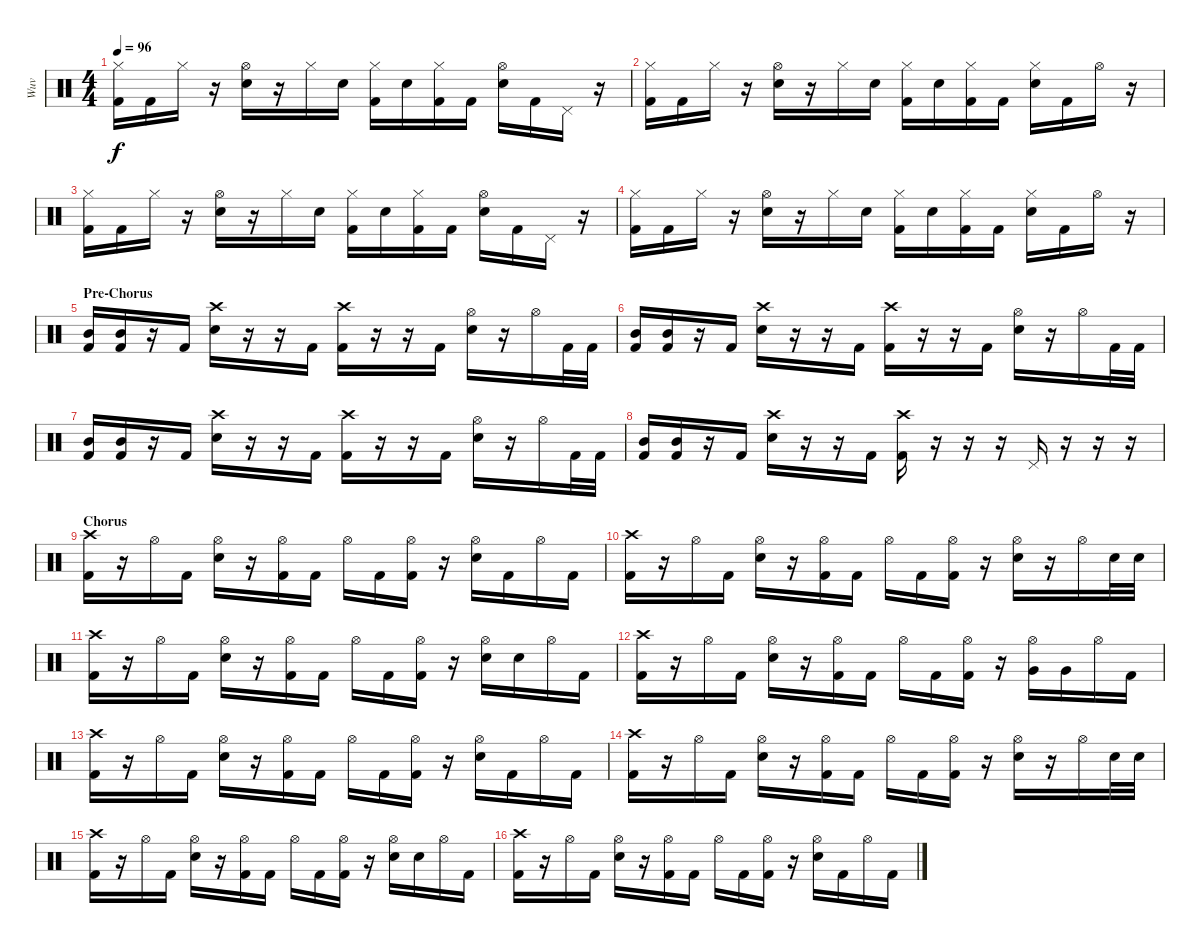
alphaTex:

\track ("Wuv" "Wuv") {instrument percussion}
\staff {score}
\articulation defaults
\ts (4 4)
\tempo 96
\clef neutral
\ks c
("Hi-Hat (closed)" "Kick (hit) 2").16{dy f} "Kick (hit) 2".16 "Hi-Hat (closed)".16 r.16 ("Hi-Hat (open)" "Snare (hit) 2").16 r.16 "Hi-Hat (closed)".16 "Snare (hit) 2".16 ("Hi-Hat (closed)" "Kick (hit) 2").16 "Snare (hit) 2".16 ("Hi-Hat (closed)" "Kick (hit) 2").16 "Kick (hit) 2".16 ("Hi-Hat (open)" "Snare (hit) 2").16 "Kick (hit) 2".16 "Pedal Hi-Hat (hit)".16 r.16 |
("Hi-Hat (closed)" "Kick (hit) 2").16 "Kick (hit) 2".16 "Hi-Hat (closed)".16 r.16 ("Hi-Hat (open)" "Snare (hit) 2").16 r.16 "Hi-Hat (closed)".16 "Snare (hit) 2".16 ("Hi-Hat (closed)" "Kick (hit) 2").16 "Snare (hit) 2".16 ("Hi-Hat (closed)" "Kick (hit) 2").16 "Kick (hit) 2".16 ("Hi-Hat (closed)" "Snare (hit) 2").16 "Kick (hit) 2".16 "Hi-Hat (open)".16 r.16 |
("Hi-Hat (closed)" "Kick (hit) 2").16 "Kick (hit) 2".16 "Hi-Hat (closed)".16 r.16 ("Hi-Hat (open)" "Snare (hit) 2").16 r.16 "Hi-Hat (closed)".16 "Snare (hit) 2".16 ("Hi-Hat (closed)" "Kick (hit) 2").16 "Snare (hit) 2".16 ("Hi-Hat (closed)" "Kick (hit) 2").16 "Kick (hit) 2".16 ("Hi-Hat (open)" "Snare (hit) 2").16 "Kick (hit) 2".16 "Pedal Hi-Hat (hit)".16 r.16 |
("Hi-Hat (closed)" "Kick (hit) 2").16 "Kick (hit) 2".16 "Hi-Hat (closed)".16 r.16 ("Hi-Hat (open)" "Snare (hit) 2").16 r.16 "Hi-Hat (closed)".16 "Snare (hit) 2".16 ("Hi-Hat (closed)" "Kick (hit) 2").16 "Snare (hit) 2".16 ("Hi-Hat (closed)" "Kick (hit) 2").16 "Kick (hit) 2".16 ("Hi-Hat (closed)" "Snare (hit) 2").16 "Kick (hit) 2".16 "Hi-Hat (open)".16 r.16 |
\section ("" "Pre-Chorus")
("Mid Tom (hit)" "Kick (hit) 2").16 ("Mid Tom (hit)" "Kick (hit) 2").16 r.16 "Kick (hit) 2".16 ("Crash high (hit)" "Snare (hit) 2").16 r.16 r.16 "Kick (hit) 2".16 ("Crash high (hit)" "Kick (hit) 2").16 r.16 r.16 "Kick (hit) 2".16 ("Hi-Hat (open)" "Snare (hit) 2").16 r.16 "Hi-Hat (open)".16 "Kick (hit) 2".32 "Kick (hit) 2".32 |
("Mid Tom (hit)" "Kick (hit) 2").16 ("Mid Tom (hit)" "Kick (hit) 2").16 r.16 "Kick (hit) 2".16 ("Crash high (hit)" "Snare (hit) 2").16 r.16 r.16 "Kick (hit) 2".16 ("Crash high (hit)" "Kick (hit) 2").16 r.16 r.16 "Kick (hit) 2".16 ("Hi-Hat (open)" "Snare (hit) 2").16 r.16 "Hi-Hat (open)".16 "Kick (hit) 2".32 "Kick (hit) 2".32 |
("Mid Tom (hit)" "Kick (hit) 2").16 ("Mid Tom (hit)" "Kick (hit) 2").16 r.16 "Kick (hit) 2".16 ("Crash high (hit)" "Snare (hit) 2").16 r.16 r.16 "Kick (hit) 2".16 ("Crash high (hit)" "Kick (hit) 2").16 r.16 r.16 "Kick (hit) 2".16 ("Hi-Hat (open)" "Snare (hit) 2").16 r.16 "Hi-Hat (open)".16 "Kick (hit) 2".32 "Kick (hit) 2".32 |
("Mid Tom (hit)" "Kick (hit) 2").16 ("Mid Tom (hit)" "Kick (hit) 2").16 r.16 "Kick (hit) 2".16 ("Crash high (hit)" "Snare (hit) 2").16 r.16 r.16 "Kick (hit) 2".16 ("Crash high (hit)" "Kick (hit) 2").16 r.16 r.16 r.16 "Pedal Hi-Hat (hit)".16 r.16 r.16 r.16 |
\section ("" "Chorus")
("Crash high (hit)" "Kick (hit) 2").16 r.16 "Hi-Hat (open)".16 "Kick (hit) 2".16 ("Hi-Hat (open)" "Snare (hit) 2").16 r.16 ("Hi-Hat (open)" "Kick (hit) 2").16 "Kick (hit) 2".16 "Hi-Hat (open)".16 "Kick (hit) 2".16 ("Hi-Hat (open)" "Kick (hit) 2").16 r.16 ("Hi-Hat (open)" "Snare (hit) 2").16 "Kick (hit) 2".16 "Hi-Hat (open)".16 "Kick (hit) 2".16 |
("Crash high (hit)" "Kick (hit) 2").16 r.16 "Hi-Hat (open)".16 "Kick (hit) 2".16 ("Hi-Hat (open)" "Snare (hit) 2").16 r.16 ("Hi-Hat (open)" "Kick (hit) 2").16 "Kick (hit) 2".16 "Hi-Hat (open)".16 "Kick (hit) 2".16 ("Hi-Hat (open)" "Kick (hit) 2").16 r.16 ("Hi-Hat (open)" "Snare (hit) 2").16 r.16 "Hi-Hat (open)".16 "Snare (hit) 2".32 "Snare (hit) 2".32 |
("Crash high (hit)" "Kick (hit) 2").16 r.16 "Hi-Hat (open)".16 "Kick (hit) 2".16 ("Hi-Hat (open)" "Snare (hit) 2").16 r.16 ("Hi-Hat (open)" "Kick (hit) 2").16 "Kick (hit) 2".16 "Hi-Hat (open)".16 "Kick (hit) 2".16 ("Hi-Hat (open)" "Kick (hit) 2").16 r.16 ("Hi-Hat (open)" "Snare (hit) 2").16 "Snare (hit) 2".16 "Hi-Hat (open)".16 "Kick (hit) 2".16 |
("Crash high (hit)" "Kick (hit) 2").16 r.16 "Hi-Hat (open)".16 "Kick (hit) 2".16 ("Hi-Hat (open)" "Snare (hit) 2").16 r.16 ("Hi-Hat (open)" "Kick (hit) 2").16 "Kick (hit) 2".16 "Hi-Hat (open)".16 "Kick (hit) 2".16 ("Hi-Hat (open)" "Kick (hit) 2").16 r.16 ("Hi-Hat (open)" "Very Low Tom (hit)").16 "Very Low Tom (hit)".16 "Hi-Hat (open)".16 "Kick (hit) 2".16 |
("Crash high (hit)" "Kick (hit) 2").16 r.16 "Hi-Hat (open)".16 "Kick (hit) 2".16 ("Hi-Hat (open)" "Snare (hit) 2").16 r.16 ("Hi-Hat (open)" "Kick (hit) 2").16 "Kick (hit) 2".16 "Hi-Hat (open)".16 "Kick (hit) 2".16 ("Hi-Hat (open)" "Kick (hit) 2").16 r.16 ("Hi-Hat (open)" "Snare (hit) 2").16 "Kick (hit) 2".16 "Hi-Hat (open)".16 "Kick (hit) 2".16 |
("Crash high (hit)" "Kick (hit) 2").16 r.16 "Hi-Hat (open)".16 "Kick (hit) 2".16 ("Hi-Hat (open)" "Snare (hit) 2").16 r.16 ("Hi-Hat (open)" "Kick (hit) 2").16 "Kick (hit) 2".16 "Hi-Hat (open)".16 "Kick (hit) 2".16 ("Hi-Hat (open)" "Kick (hit) 2").16 r.16 ("Hi-Hat (open)" "Snare (hit) 2").16 r.16 "Hi-Hat (open)".16 "Snare (hit) 2".32 "Snare (hit) 2".32 |
("Crash high (hit)" "Kick (hit) 2").16 r.16 "Hi-Hat (open)".16 "Kick (hit) 2".16 ("Hi-Hat (open)" "Snare (hit) 2").16 r.16 ("Hi-Hat (open)" "Kick (hit) 2").16 "Kick (hit) 2".16 "Hi-Hat (open)".16 "Kick (hit) 2".16 ("Hi-Hat (open)" "Kick (hit) 2").16 r.16 ("Hi-Hat (open)" "Snare (hit) 2").16 "Snare (hit) 2".16 "Hi-Hat (open)".16 "Kick (hit) 2".16 |
("Crash high (hit)" "Kick (hit) 2").16 r.16 "Hi-Hat (open)".16 "Kick (hit) 2".16 ("Hi-Hat (open)" "Snare (hit) 2").16 r.16 ("Hi-Hat (open)" "Kick (hit) 2").16 "Kick (hit) 2".16 "Hi-Hat (open)".16 "Kick (hit) 2".16 ("Hi-Hat (open)" "Kick (hit) 2").16 r.16 ("Hi-Hat (open)" "Snare (hit) 2").16 "Kick (hit) 2".16 "Hi-Hat (open)".16 "Kick (hit) 2".16
